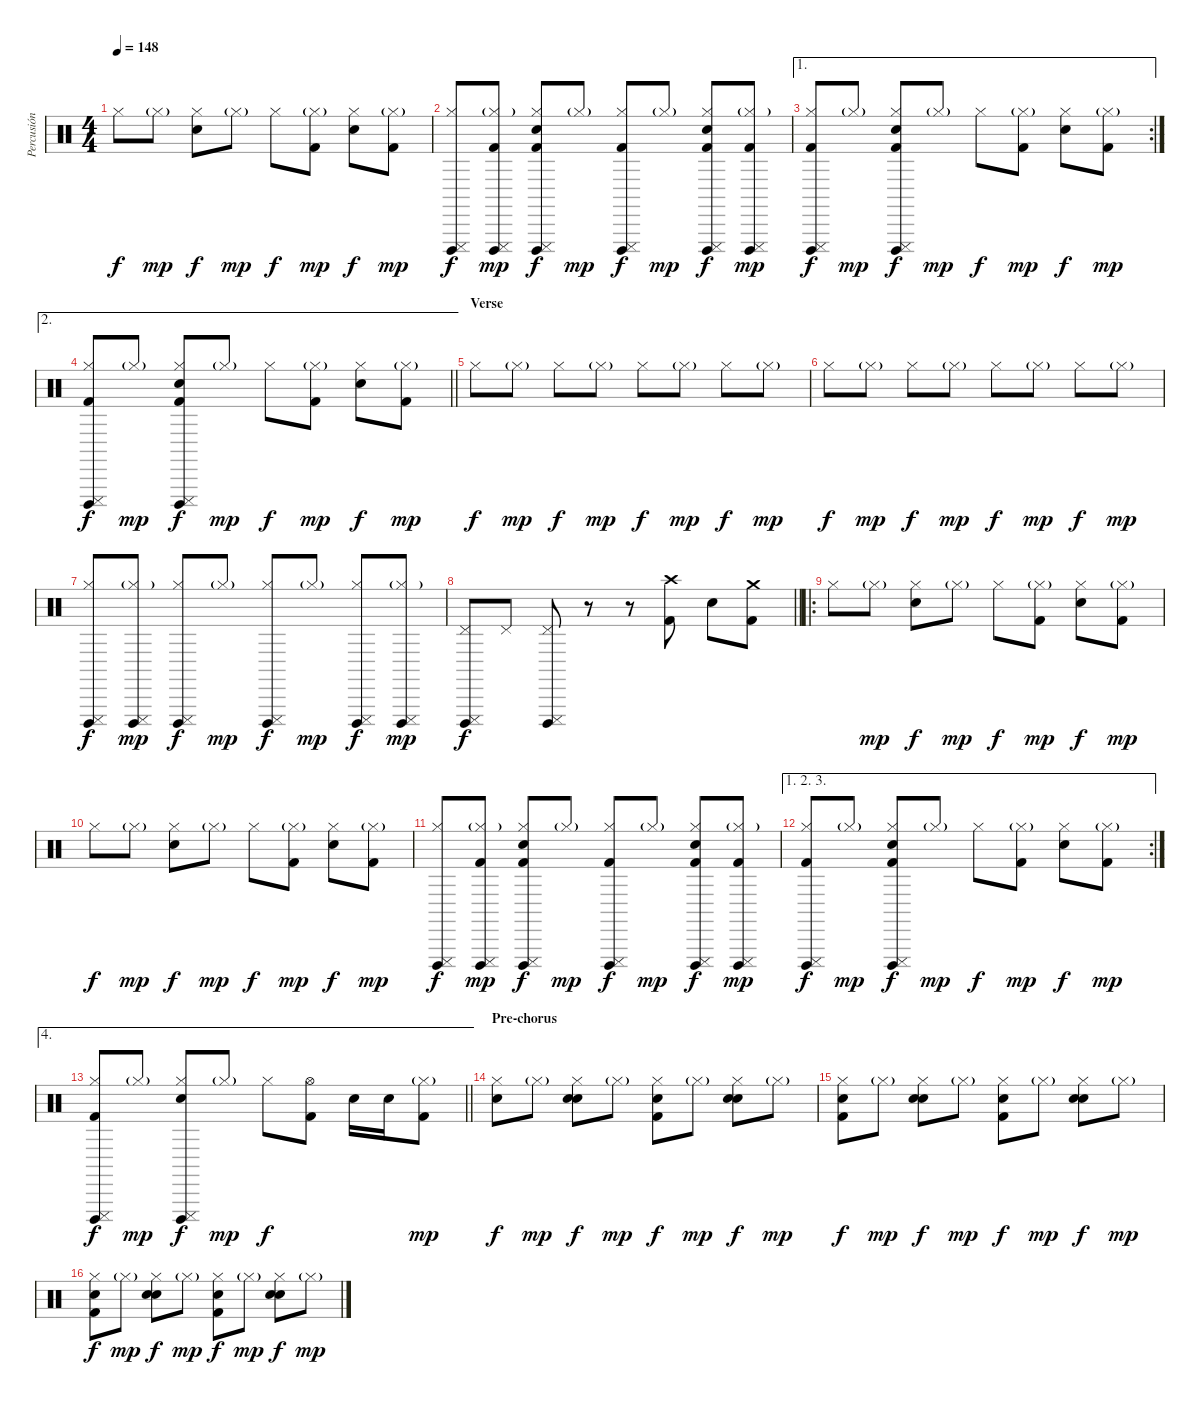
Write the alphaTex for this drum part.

\track ("Percusión" "Percusión") {instrument percussion}
\staff {score}
\articulation defaults
\ts (4 4)
\tempo 148
\clef neutral
\ks c "Hi-Hat (closed)".8{dy f} "Hi-Hat (closed)"{g}.8{dy mp}
("Hi-Hat (closed)" "Snare (hit) 2").8{dy f} "Hi-Hat (closed)"{g}.8{dy mp} "Hi-Hat (closed)".8{dy f} ("Hi-Hat (closed)"{g} "Kick (hit) 2").8{dy mp} ("Hi-Hat (closed)" "Snare (hit) 2").8{dy f} ("Hi-Hat (closed)"{g} "Kick (hit) 2").8{dy mp} |
("Hi-Hat (closed)" "Cuica (open)" "Cuica (mute)").8{dy f} ("Hi-Hat (closed)"{g} "Cuica (open)" "Cuica (mute)" "Kick (hit) 2").8{dy mp} ("Hi-Hat (closed)" "Cuica (open)" "Cuica (mute)" "Snare (hit) 2" "Kick (hit) 2").8{dy f} "Hi-Hat (closed)"{g}.8{dy mp} ("Hi-Hat (closed)" "Cuica (open)" "Cuica (mute)" "Kick (hit) 2").8{dy f} "Hi-Hat (closed)"{g}.8{dy mp} ("Hi-Hat (closed)" "Cuica (open)" "Cuica (mute)" "Snare (hit) 2" "Kick (hit) 2").8{dy f} ("Hi-Hat (closed)"{g} "Cuica (open)" "Cuica (mute)" "Kick (hit) 2").8{dy mp} |
\ae 1
\rc 2
("Hi-Hat (closed)" "Cuica (open)" "Cuica (mute)" "Kick (hit) 2").8{dy f} "Hi-Hat (closed)"{g}.8{dy mp} ("Hi-Hat (closed)" "Cuica (open)" "Cuica (mute)" "Snare (hit) 2" "Kick (hit) 2").8{dy f} "Hi-Hat (closed)"{g}.8{dy mp} "Hi-Hat (closed)".8{dy f} ("Hi-Hat (closed)"{g} "Kick (hit) 2").8{dy mp} ("Hi-Hat (closed)" "Snare (hit) 2").8{dy f} ("Hi-Hat (closed)"{g} "Kick (hit) 2").8{dy mp} |
\ae 2
\barLineRight lightlight
("Hi-Hat (closed)" "Cuica (open)" "Cuica (mute)" "Kick (hit) 2").8{dy f} "Hi-Hat (closed)"{g}.8{dy mp} ("Hi-Hat (closed)" "Cuica (open)" "Cuica (mute)" "Snare (hit) 2" "Kick (hit) 2").8{dy f} "Hi-Hat (closed)"{g}.8{dy mp} "Hi-Hat (closed)".8{dy f} ("Hi-Hat (closed)"{g} "Kick (hit) 2").8{dy mp} ("Hi-Hat (closed)" "Snare (hit) 2").8{dy f} ("Hi-Hat (closed)"{g} "Kick (hit) 2").8{dy mp} |
\section ("" "Verse")
"Hi-Hat (closed)".8{dy f} "Hi-Hat (closed)"{g}.8{dy mp} "Hi-Hat (closed)".8{dy f} "Hi-Hat (closed)"{g}.8{dy mp} "Hi-Hat (closed)".8{dy f} "Hi-Hat (closed)"{g}.8{dy mp} "Hi-Hat (closed)".8{dy f} "Hi-Hat (closed)"{g}.8{dy mp} |
"Hi-Hat (closed)".8{dy f} "Hi-Hat (closed)"{g}.8{dy mp} "Hi-Hat (closed)".8{dy f} "Hi-Hat (closed)"{g}.8{dy mp} "Hi-Hat (closed)".8{dy f} "Hi-Hat (closed)"{g}.8{dy mp} "Hi-Hat (closed)".8{dy f} "Hi-Hat (closed)"{g}.8{dy mp} |
("Hi-Hat (closed)" "Cuica (open)" "Cuica (mute)").8{dy f} ("Hi-Hat (closed)"{g} "Cuica (open)" "Cuica (mute)").8{dy mp} ("Hi-Hat (closed)" "Cuica (open)" "Cuica (mute)").8{dy f} "Hi-Hat (closed)"{g}.8{dy mp} ("Hi-Hat (closed)" "Cuica (open)" "Cuica (mute)").8{dy f} "Hi-Hat (closed)"{g}.8{dy mp} ("Hi-Hat (closed)" "Cuica (open)" "Cuica (mute)").8{dy f} ("Hi-Hat (closed)"{g} "Cuica (open)" "Cuica (mute)").8{dy mp} |
\barLineRight lightlight
("Pedal Hi-Hat (hit)" "Cuica (open)" "Cuica (mute)").8{dy f} "Pedal Hi-Hat (hit)".8 ("Pedal Hi-Hat (hit)" "Cuica (open)" "Cuica (mute)").8 r.8 r.8 ("Crash high (hit)" "Kick (hit) 2").8 "Snare (hit) 2".8 ("Crash medium (hit)" "Kick (hit) 2").8 |
\ro "Hi-Hat (closed)".8 "Hi-Hat (closed)"{g}.8{dy mp}
("Hi-Hat (closed)" "Snare (hit) 2").8{dy f} "Hi-Hat (closed)"{g}.8{dy mp} "Hi-Hat (closed)".8{dy f} ("Hi-Hat (closed)"{g} "Kick (hit) 2").8{dy mp} ("Hi-Hat (closed)" "Snare (hit) 2").8{dy f} ("Hi-Hat (closed)"{g} "Kick (hit) 2").8{dy mp} |
"Hi-Hat (closed)".8{dy f} "Hi-Hat (closed)"{g}.8{dy mp} ("Hi-Hat (closed)" "Snare (hit) 2").8{dy f} "Hi-Hat (closed)"{g}.8{dy mp} "Hi-Hat (closed)".8{dy f} ("Hi-Hat (closed)"{g} "Kick (hit) 2").8{dy mp} ("Hi-Hat (closed)" "Snare (hit) 2").8{dy f} ("Hi-Hat (closed)"{g} "Kick (hit) 2").8{dy mp} |
("Hi-Hat (closed)" "Cuica (open)" "Cuica (mute)").8{dy f} ("Hi-Hat (closed)"{g} "Cuica (open)" "Cuica (mute)" "Kick (hit) 2").8{dy mp} ("Hi-Hat (closed)" "Cuica (open)" "Cuica (mute)" "Snare (hit) 2" "Kick (hit) 2").8{dy f} "Hi-Hat (closed)"{g}.8{dy mp} ("Hi-Hat (closed)" "Cuica (open)" "Cuica (mute)" "Kick (hit) 2").8{dy f} "Hi-Hat (closed)"{g}.8{dy mp} ("Hi-Hat (closed)" "Cuica (open)" "Cuica (mute)" "Snare (hit) 2" "Kick (hit) 2").8{dy f} ("Hi-Hat (closed)"{g} "Cuica (open)" "Cuica (mute)" "Kick (hit) 2").8{dy mp} |
\ae (1 2 3)
\rc 2
("Hi-Hat (closed)" "Cuica (open)" "Cuica (mute)" "Kick (hit) 2").8{dy f} "Hi-Hat (closed)"{g}.8{dy mp} ("Hi-Hat (closed)" "Cuica (open)" "Cuica (mute)" "Snare (hit) 2" "Kick (hit) 2").8{dy f} "Hi-Hat (closed)"{g}.8{dy mp} "Hi-Hat (closed)".8{dy f} ("Hi-Hat (closed)"{g} "Kick (hit) 2").8{dy mp} ("Hi-Hat (closed)" "Snare (hit) 2").8{dy f} ("Hi-Hat (closed)"{g} "Kick (hit) 2").8{dy mp} |
\ae 4
\barLineRight lightlight
("Hi-Hat (closed)" "Cuica (open)" "Cuica (mute)" "Kick (hit) 2").8{dy f} "Hi-Hat (closed)"{g}.8{dy mp} ("Hi-Hat (closed)" "Cuica (open)" "Cuica (mute)" "Snare (hit) 2").8{dy f} "Hi-Hat (closed)"{g}.8{dy mp} "Hi-Hat (closed)".8{dy f} ("Hi-Hat (open)" "Kick (hit) 2").8 "Snare (hit) 2".16 "Snare (hit) 2".16 ("Hi-Hat (closed)"{g} "Kick (hit) 2").8{dy mp} |
\section ("" "Pre-chorus")
("Hi-Hat (closed)" "Hand Clap (hit)").8{dy f} "Hi-Hat (closed)"{g}.8{dy mp} ("Hi-Hat (closed)" "Hand Clap (hit)" "Snare (hit) 2").8{dy f} "Hi-Hat (closed)"{g}.8{dy mp} ("Hi-Hat (closed)" "Hand Clap (hit)" "Kick (hit) 2").8{dy f} "Hi-Hat (closed)"{g}.8{dy mp} ("Hi-Hat (closed)" "Hand Clap (hit)" "Snare (hit) 2").8{dy f} "Hi-Hat (closed)"{g}.8{dy mp} |
("Hi-Hat (closed)" "Hand Clap (hit)" "Kick (hit) 2").8{dy f} "Hi-Hat (closed)"{g}.8{dy mp} ("Hi-Hat (closed)" "Hand Clap (hit)" "Snare (hit) 2").8{dy f} "Hi-Hat (closed)"{g}.8{dy mp} ("Hi-Hat (closed)" "Hand Clap (hit)" "Kick (hit) 2").8{dy f} "Hi-Hat (closed)"{g}.8{dy mp} ("Hi-Hat (closed)" "Hand Clap (hit)" "Snare (hit) 2").8{dy f} "Hi-Hat (closed)"{g}.8{dy mp} |
("Hi-Hat (closed)" "Hand Clap (hit)" "Kick (hit) 2").8{dy f} "Hi-Hat (closed)"{g}.8{dy mp} ("Hi-Hat (closed)" "Hand Clap (hit)" "Snare (hit) 2").8{dy f} "Hi-Hat (closed)"{g}.8{dy mp} ("Hi-Hat (closed)" "Hand Clap (hit)" "Kick (hit) 2").8{dy f} "Hi-Hat (closed)"{g}.8{dy mp} ("Hi-Hat (closed)" "Hand Clap (hit)" "Snare (hit) 2").8{dy f} "Hi-Hat (closed)"{g}.8{dy mp}
